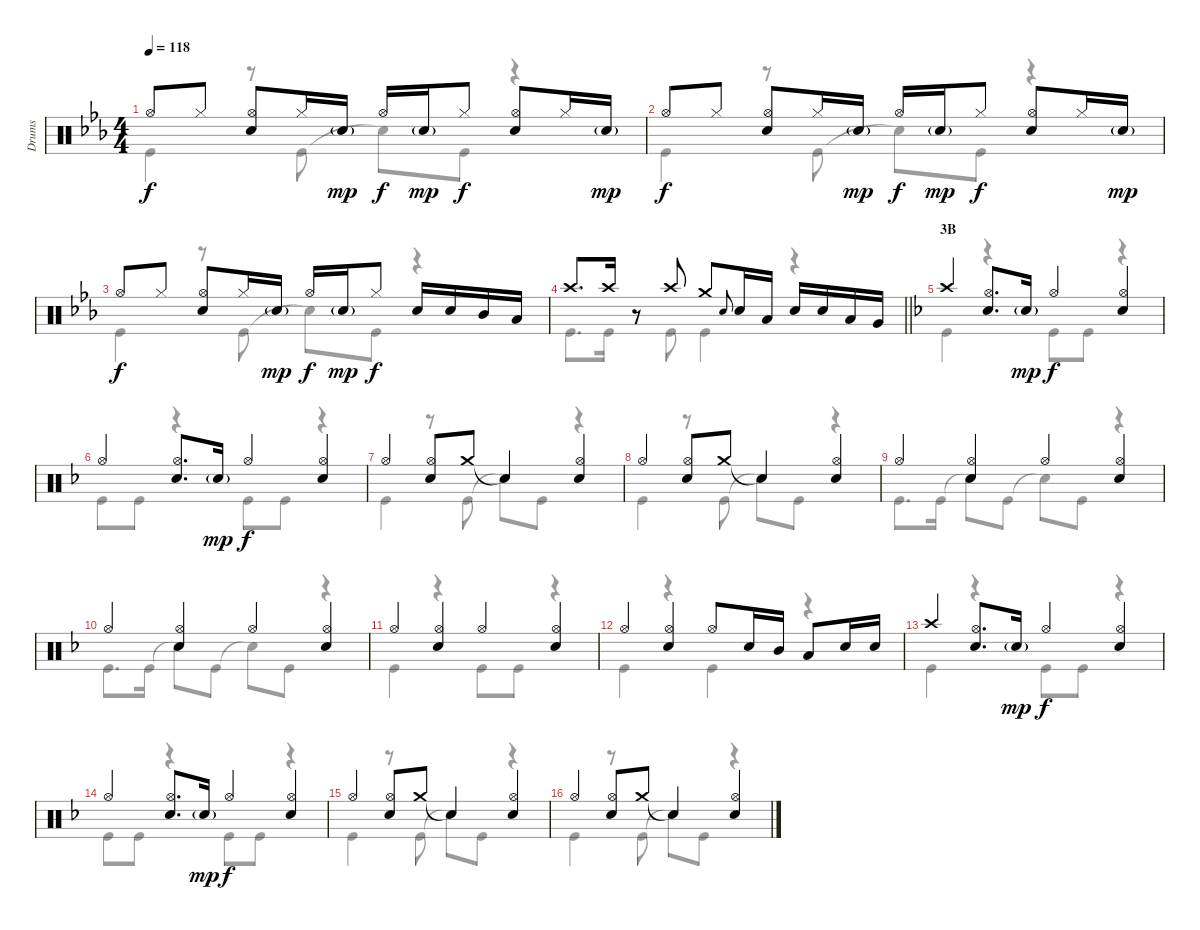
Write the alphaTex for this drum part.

\track ("Drums" "Drums") {instrument percussion}
\staff {score}
\articulation defaults
\voice
\ts (4 4)
\tempo 118
\clef neutral
\ks eb "Hi-Hat (open)".8{dy f} "Hi-Hat (closed)".8
("Hi-Hat (open)" "Snare (hit) 2").8 "Hi-Hat (closed)".16 "Snare (hit) 2"{g}.16{dy mp} "Hi-Hat (open)".16{dy f} "Snare (hit) 2"{g}.16{dy mp} "Hi-Hat (closed)".8{dy f} ("Hi-Hat (open)" "Snare (hit) 2").8 "Hi-Hat (closed)".16 "Snare (hit) 2"{g}.16{dy mp} |
"Hi-Hat (open)".8{dy f} "Hi-Hat (closed)".8 ("Hi-Hat (open)" "Snare (hit) 2").8 "Hi-Hat (closed)".16 "Snare (hit) 2"{g}.16{dy mp} "Hi-Hat (open)".16{dy f} "Snare (hit) 2"{g}.16{dy mp} "Hi-Hat (closed)".8{dy f} ("Hi-Hat (open)" "Snare (hit) 2").8 "Hi-Hat (closed)".16 "Snare (hit) 2"{g}.16{dy mp} |
"Hi-Hat (open)".8{dy f} "Hi-Hat (closed)".8 ("Hi-Hat (open)" "Snare (hit) 2").8 "Hi-Hat (closed)".16 "Snare (hit) 2"{g}.16{dy mp} "Hi-Hat (open)".16{dy f} "Snare (hit) 2"{g}.16{dy mp} "Hi-Hat (closed)".8{dy f} "Snare (hit) 2".16 "Snare (hit) 2".16 "Mid Tom (hit)".16 "Low Tom (hit)".16 |
\barLineRight lightlight "Crash high (hit)".8{d} "Crash high (hit)".16
r.8 "Crash high (hit)".8 "Crash medium (hit)".8 "Snare (hit) 2".8{gr onbeat} "Snare (hit) 2".16 "Low Tom (hit)".16 "Snare (hit) 2".16 "Snare (hit) 2".16 "Low Tom (hit)".16 "Very Low Tom (hit)".16 |
\section ("" "3B")
\ks f "Crash high (hit)".4
("Hi-Hat (open)" "Snare (hit) 2").8{d} "Snare (hit) 2"{g}.16{dy mp} "Hi-Hat (open)".4{dy f} ("Hi-Hat (open)" "Snare (hit) 2").4 |
"Hi-Hat (open)".4 ("Hi-Hat (open)" "Snare (hit) 2").8{d} "Snare (hit) 2"{g}.16{dy mp} "Hi-Hat (open)".4{dy f} ("Hi-Hat (open)" "Snare (hit) 2").4 |
"Hi-Hat (open)".4 ("Hi-Hat (open)" "Snare (hit) 2").8 "Crash medium (hit)".8 "Snare (hit)"{t}.4 ("Hi-Hat (open)" "Snare (hit) 2").4 |
"Hi-Hat (open)".4 ("Hi-Hat (open)" "Snare (hit) 2").8 "Crash medium (hit)".8 "Snare (hit)"{t}.4 ("Hi-Hat (open)" "Snare (hit) 2").4 |
"Hi-Hat (open)".4 ("Hi-Hat (open)" "Snare (hit) 2").4 "Hi-Hat (open)".4 ("Hi-Hat (open)" "Snare (hit) 2").4 |
"Hi-Hat (open)".4 ("Hi-Hat (open)" "Snare (hit) 2").4 "Hi-Hat (open)".4 ("Hi-Hat (open)" "Snare (hit) 2").4 |
"Hi-Hat (open)".4 ("Hi-Hat (open)" "Snare (hit) 2").4 "Hi-Hat (open)".4 ("Hi-Hat (open)" "Snare (hit) 2").4 |
"Hi-Hat (open)".4 ("Hi-Hat (open)" "Snare (hit) 2").4 "Hi-Hat (open)".8 "Snare (hit) 2".16 "Mid Tom (hit)".16 "Low Tom (hit)".8 "Snare (hit) 2".16 "Snare (hit) 2".16 |
"Crash high (hit)".4 ("Hi-Hat (open)" "Snare (hit) 2").8{d} "Snare (hit) 2"{g}.16{dy mp} "Hi-Hat (open)".4{dy f} ("Hi-Hat (open)" "Snare (hit) 2").4 |
"Hi-Hat (open)".4 ("Hi-Hat (open)" "Snare (hit) 2").8{d} "Snare (hit) 2"{g}.16{dy mp} "Hi-Hat (open)".4{dy f} ("Hi-Hat (open)" "Snare (hit) 2").4 |
"Hi-Hat (open)".4 ("Hi-Hat (open)" "Snare (hit) 2").8 "Crash medium (hit)".8 "Snare (hit)"{t}.4 ("Hi-Hat (open)" "Snare (hit) 2").4 |
"Hi-Hat (open)".4 ("Hi-Hat (open)" "Snare (hit) 2").8 "Crash medium (hit)".8 "Snare (hit)"{t}.4 ("Hi-Hat (open)" "Snare (hit) 2").4
\voice
\clef neutral
\ottava regular
\simile none
\ks eb "Kick (hit)".4{dy f}
r.8 "Kick (hit)".8 "Snare (hit)"{t}.8 "Kick (hit)".8 r.4 |
"Kick (hit)".4 r.8 "Kick (hit)".8 "Snare (hit)"{t}.8 "Kick (hit)".8 r.4 |
"Kick (hit)".4 r.8 "Kick (hit)".8 "Snare (hit)"{t}.8 "Kick (hit)".8 r.4 |
\barLineRight lightlight "Kick (hit)".8{d} "Kick (hit)".16
r.8 "Kick (hit)".8 "Kick (hit)".4 r.4 |
\ks f "Kick (hit)".4
r.4 "Kick (hit)".8 "Kick (hit)".8 r.4 |
"Kick (hit)".8 "Kick (hit)".8 r.4 "Kick (hit)".8 "Kick (hit)".8 r.4 |
"Kick (hit)".4 r.8 "Kick (hit)".8 "Snare (hit)"{t}.8 "Kick (hit)".8 r.4 |
"Kick (hit)".4 r.8 "Kick (hit)".8 "Snare (hit)"{t}.8 "Kick (hit)".8 r.4 |
"Kick (hit)".8{d} "Kick (hit)".16 "Snare (hit)"{t}.8 "Kick (hit)".8 "Snare (hit)"{t}.8 "Kick (hit)".8 r.4 |
"Kick (hit)".8{d} "Kick (hit)".16 "Snare (hit)"{t}.8 "Kick (hit)".8 "Snare (hit)"{t}.8 "Kick (hit)".8 r.4 |
"Kick (hit)".4 r.4 "Kick (hit)".8 "Kick (hit)".8 r.4 |
"Kick (hit)".4 r.4 "Kick (hit)".4 r.4 |
"Kick (hit)".4 r.4 "Kick (hit)".8 "Kick (hit)".8 r.4 |
"Kick (hit)".8 "Kick (hit)".8 r.4 "Kick (hit)".8 "Kick (hit)".8 r.4 |
"Kick (hit)".4 r.8 "Kick (hit)".8 "Snare (hit)"{t}.8 "Kick (hit)".8 r.4 |
"Kick (hit)".4 r.8 "Kick (hit)".8 "Snare (hit)"{t}.8 "Kick (hit)".8 r.4
